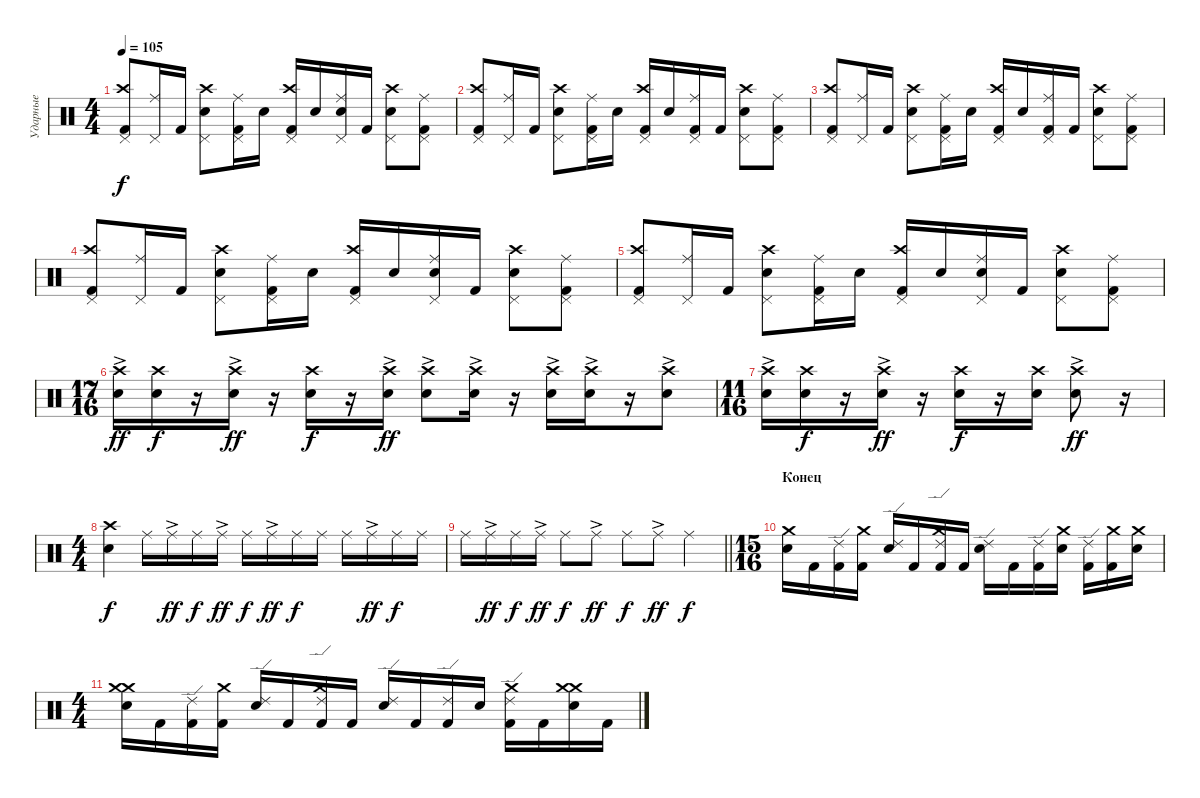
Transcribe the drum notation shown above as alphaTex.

\track ("Ударные" "Ударные") {instrument percussion}
\staff {score}
\articulation defaults
\ts (4 4)
\tempo 105
\clef neutral
\ks c
("Kick (hit) 2" "Crash high (hit)" "Pedal Hi-Hat (hit)").8{dy f} ("Ride (middle)" "Pedal Hi-Hat (hit)").16 "Kick (hit) 2".16 ("Electric Snare (hit)" "Crash high (hit)" "Pedal Hi-Hat (hit)").8 ("Ride (middle)" "Kick (hit) 2" "Pedal Hi-Hat (hit)").16 "Electric Snare (hit)".16 ("Kick (hit) 2" "Crash high (hit)" "Pedal Hi-Hat (hit)").16 "Electric Snare (hit)".16 ("Ride (middle)" "Electric Snare (hit)" "Pedal Hi-Hat (hit)").16 "Kick (hit) 2".16 ("Electric Snare (hit)" "Crash high (hit)" "Pedal Hi-Hat (hit)").8 ("Ride (middle)" "Kick (hit) 2" "Pedal Hi-Hat (hit)").8 |
("Kick (hit) 2" "Crash high (hit)" "Pedal Hi-Hat (hit)").8 ("Ride (middle)" "Pedal Hi-Hat (hit)").16 "Kick (hit) 2".16 ("Electric Snare (hit)" "Crash high (hit)" "Pedal Hi-Hat (hit)").8 ("Ride (middle)" "Kick (hit) 2" "Pedal Hi-Hat (hit)").16 "Electric Snare (hit)".16 ("Kick (hit) 2" "Crash high (hit)" "Pedal Hi-Hat (hit)").16 "Electric Snare (hit)".16 ("Ride (middle)" "Kick (hit) 2" "Pedal Hi-Hat (hit)").16 "Kick (hit) 2".16 ("Electric Snare (hit)" "Crash high (hit)" "Pedal Hi-Hat (hit)").8 ("Ride (middle)" "Kick (hit) 2" "Pedal Hi-Hat (hit)").8 |
("Kick (hit) 2" "Crash high (hit)" "Pedal Hi-Hat (hit)").8 ("Ride (middle)" "Pedal Hi-Hat (hit)").16 "Kick (hit) 2".16 ("Electric Snare (hit)" "Crash high (hit)" "Pedal Hi-Hat (hit)").8 ("Ride (middle)" "Kick (hit) 2" "Pedal Hi-Hat (hit)").16 "Electric Snare (hit)".16 ("Kick (hit) 2" "Crash high (hit)" "Pedal Hi-Hat (hit)").16 "Electric Snare (hit)".16 ("Ride (middle)" "Kick (hit) 2" "Pedal Hi-Hat (hit)").16 "Kick (hit) 2".16 ("Electric Snare (hit)" "Crash high (hit)" "Pedal Hi-Hat (hit)").8 ("Ride (middle)" "Kick (hit) 2" "Pedal Hi-Hat (hit)").8 |
("Kick (hit) 2" "Crash high (hit)" "Pedal Hi-Hat (hit)").8 ("Ride (middle)" "Pedal Hi-Hat (hit)").16 "Kick (hit) 2".16 ("Electric Snare (hit)" "Crash high (hit)" "Pedal Hi-Hat (hit)").8 ("Ride (middle)" "Kick (hit) 2" "Pedal Hi-Hat (hit)").16 "Electric Snare (hit)".16 ("Kick (hit) 2" "Crash high (hit)" "Pedal Hi-Hat (hit)").16 "Electric Snare (hit)".16 ("Ride (middle)" "Electric Snare (hit)" "Pedal Hi-Hat (hit)").16 "Kick (hit) 2".16 ("Electric Snare (hit)" "Crash high (hit)" "Pedal Hi-Hat (hit)").8 ("Ride (middle)" "Kick (hit) 2" "Pedal Hi-Hat (hit)").8 |
("Kick (hit) 2" "Crash high (hit)" "Pedal Hi-Hat (hit)").8 ("Ride (middle)" "Pedal Hi-Hat (hit)").16 "Kick (hit) 2".16 ("Electric Snare (hit)" "Crash high (hit)" "Pedal Hi-Hat (hit)").8 ("Ride (middle)" "Kick (hit) 2" "Pedal Hi-Hat (hit)").16 "Electric Snare (hit)".16 ("Kick (hit) 2" "Crash high (hit)" "Pedal Hi-Hat (hit)").16 "Electric Snare (hit)".16 ("Ride (middle)" "Electric Snare (hit)" "Pedal Hi-Hat (hit)").16 "Kick (hit) 2".16 ("Electric Snare (hit)" "Crash high (hit)" "Pedal Hi-Hat (hit)").8 ("Ride (middle)" "Kick (hit) 2" "Pedal Hi-Hat (hit)").8 |
\ts (17 16)
("Crash high (hit)" "Electric Snare (hit)"{ac}).16{dy ff} ("Crash high (hit)" "Electric Snare (hit)").16{dy f} r.16 ("Crash high (hit)" "Electric Snare (hit)"{ac}).16{dy ff} r.16 ("Crash high (hit)" "Electric Snare (hit)").16{dy f} r.16 ("Crash high (hit)" "Electric Snare (hit)"{ac}).16{dy ff} ("Crash high (hit)" "Electric Snare (hit)"{ac}).8 ("Crash high (hit)" "Electric Snare (hit)"{ac}).16 r.16 ("Crash high (hit)" "Electric Snare (hit)"{ac}).16 ("Crash high (hit)" "Electric Snare (hit)"{ac}).16 r.16 ("Crash high (hit)"{ac} "Electric Snare (hit)").8 |
\ts (11 16)
("Crash high (hit)" "Electric Snare (hit)"{ac}).16 ("Crash high (hit)" "Electric Snare (hit)").16{dy f} r.16 ("Crash high (hit)" "Electric Snare (hit)"{ac}).16{dy ff} r.16 ("Crash high (hit)" "Electric Snare (hit)").16{dy f} r.16 ("Crash high (hit)" "Electric Snare (hit)").16 ("Crash high (hit)" "Electric Snare (hit)"{ac}).8{dy ff} r.16 |
\ts (4 4)
("Crash high (hit)" "Electric Snare (hit)").4{dy f} "Ride (middle)".16 "Ride (middle)"{ac}.16{dy ff} "Ride (middle)".16{dy f} "Ride (middle)"{ac}.16{dy ff} "Ride (middle)".16{dy f} "Ride (middle)"{ac}.16{dy ff} "Ride (middle)".16{dy f} "Ride (middle)".16 "Ride (middle)".16 "Ride (middle)"{ac}.16{dy ff} "Ride (middle)".16{dy f} "Ride (middle)".16 |
\barLineRight lightlight "Ride (middle)".16 "Ride (middle)"{ac}.16{dy ff} "Ride (middle)".16{dy f} "Ride (middle)"{ac}.16{dy ff} "Ride (middle)".8{dy f} "Ride (middle)"{ac}.8{dy ff} "Ride (middle)".8{dy f} "Ride (middle)"{ac}.8{dy ff} "Ride (middle)".4{dy f}
|
\ts (15 16)
\section ("" "Конец")
("Crash medium (hit)" "Electric Snare (hit)").16 "Kick (hit) 2".16 ("Ride (edge) 2" "Kick (hit) 2").16 ("Kick (hit) 2" "Crash medium (hit)").16 ("Ride (edge) 2" "Electric Snare (hit)").16 "Kick (hit) 2".16 ("Ride (edge) 2" "Kick (hit) 2" "Crash medium (hit)").16 "Kick (hit) 2".16 ("Ride (edge) 2" "Electric Snare (hit)").16 "Kick (hit) 2".16 ("Ride (edge) 2" "Kick (hit) 2").16 ("Electric Snare (hit)" "Crash medium (hit)").16 ("Ride (edge) 2" "Kick (hit) 2").16 ("Kick (hit) 2" "Crash medium (hit)").16 ("Crash medium (hit)" "Electric Snare (hit)").16 |
\ts (4 4)
("Crash medium (hit)" "Electric Snare (hit)" "Crash medium (hit)").16 "Kick (hit) 2".16 ("Ride (edge) 2" "Kick (hit) 2").16 ("Kick (hit) 2" "Crash medium (hit)").16 ("Ride (edge) 2" "Electric Snare (hit)").16 "Kick (hit) 2".16 ("Ride (edge) 2" "Kick (hit) 2" "Crash medium (hit)").16 "Kick (hit) 2".16 ("Ride (edge) 2" "Electric Snare (hit)").16 "Kick (hit) 2".16 ("Ride (edge) 2" "Kick (hit) 2").16 "Electric Snare (hit)".16 ("Ride (edge) 2" "Kick (hit) 2" "Crash medium (hit)").16 "Kick (hit) 2".16 ("Crash medium (hit)" "Electric Snare (hit)" "Crash medium (hit)").16 "Kick (hit) 2".16
